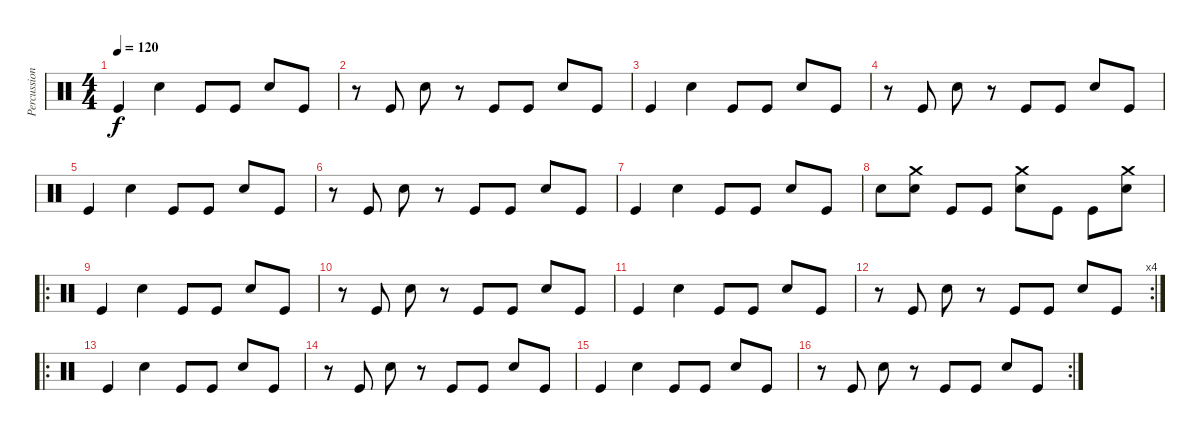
\track ("Percussions" "Percussion") {instrument percussion}
\staff {score}
\articulation defaults
\ts (4 4)
\tempo 120
\clef neutral
\ks c "Kick (hit)".4{dy f} "Electric Snare (hit)".4 "Kick (hit)".8 "Kick (hit)".8 "Electric Snare (hit)".8 "Kick (hit)".8
|
r.8 "Kick (hit)".8 "Electric Snare (hit)".8 r.8 "Kick (hit)".8 "Kick (hit)".8 "Electric Snare (hit)".8 "Kick (hit)".8 |
"Kick (hit)".4 "Electric Snare (hit)".4 "Kick (hit)".8 "Kick (hit)".8 "Electric Snare (hit)".8 "Kick (hit)".8 |
r.8 "Kick (hit)".8 "Electric Snare (hit)".8 r.8 "Kick (hit)".8 "Kick (hit)".8 "Electric Snare (hit)".8 "Kick (hit)".8 |
"Kick (hit)".4 "Electric Snare (hit)".4 "Kick (hit)".8 "Kick (hit)".8 "Electric Snare (hit)".8 "Kick (hit)".8 |
r.8 "Kick (hit)".8 "Electric Snare (hit)".8 r.8 "Kick (hit)".8 "Kick (hit)".8 "Electric Snare (hit)".8 "Kick (hit)".8 |
"Kick (hit)".4 "Electric Snare (hit)".4 "Kick (hit)".8 "Kick (hit)".8 "Electric Snare (hit)".8 "Kick (hit)".8 |
"Snare (hit)".8 ("Crash medium (hit)" "Electric Snare (hit)").8 "Kick (hit)".8 "Kick (hit)".8 ("Crash medium (hit)" "Electric Snare (hit)").8 "Kick (hit)".8 "Kick (hit)".8 ("Crash medium (hit)" "Electric Snare (hit)").8 |
\ro "Kick (hit)".4 "Electric Snare (hit)".4 "Kick (hit)".8 "Kick (hit)".8 "Electric Snare (hit)".8 "Kick (hit)".8
|
r.8 "Kick (hit)".8 "Electric Snare (hit)".8 r.8 "Kick (hit)".8 "Kick (hit)".8 "Electric Snare (hit)".8 "Kick (hit)".8 |
"Kick (hit)".4 "Electric Snare (hit)".4 "Kick (hit)".8 "Kick (hit)".8 "Electric Snare (hit)".8 "Kick (hit)".8 |
\rc 4
r.8 "Kick (hit)".8 "Electric Snare (hit)".8 r.8 "Kick (hit)".8 "Kick (hit)".8 "Electric Snare (hit)".8 "Kick (hit)".8 |
\ro "Kick (hit)".4 "Electric Snare (hit)".4 "Kick (hit)".8 "Kick (hit)".8 "Electric Snare (hit)".8 "Kick (hit)".8
|
r.8 "Kick (hit)".8 "Electric Snare (hit)".8 r.8 "Kick (hit)".8 "Kick (hit)".8 "Electric Snare (hit)".8 "Kick (hit)".8 |
"Kick (hit)".4 "Electric Snare (hit)".4 "Kick (hit)".8 "Kick (hit)".8 "Electric Snare (hit)".8 "Kick (hit)".8 |
\rc 2
r.8 "Kick (hit)".8 "Electric Snare (hit)".8 r.8 "Kick (hit)".8 "Kick (hit)".8 "Electric Snare (hit)".8 "Kick (hit)".8
